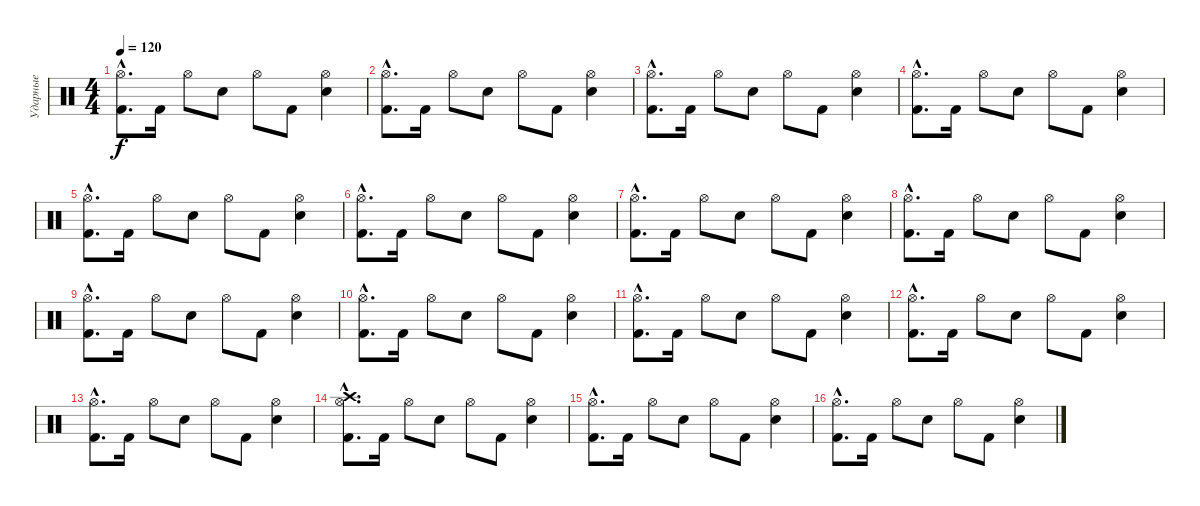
\track ("Ударные" "Ударные") {instrument percussion}
\staff {score}
\articulation defaults
\ts (4 4)
\tempo 120
\clef neutral
\ks c
("Hi-Hat (open)"{hac} "Kick (hit) 2"{hac}).8{d dy f} "Kick (hit) 2".16 "Hi-Hat (open)".8 "Snare (hit) 2".8 "Hi-Hat (open)".8 "Kick (hit) 2".8 ("Hi-Hat (open)" "Snare (hit) 2").4 |
("Hi-Hat (open)"{hac} "Kick (hit) 2"{hac}).8{d} "Kick (hit) 2".16 "Hi-Hat (open)".8 "Snare (hit) 2".8 "Hi-Hat (open)".8 "Kick (hit) 2".8 ("Hi-Hat (open)" "Snare (hit) 2").4 |
("Hi-Hat (open)"{hac} "Kick (hit) 2"{hac}).8{d} "Kick (hit) 2".16 "Hi-Hat (open)".8 "Snare (hit) 2".8 "Hi-Hat (open)".8 "Kick (hit) 2".8 ("Hi-Hat (open)" "Snare (hit) 2").4 |
("Hi-Hat (open)"{hac} "Kick (hit) 2"{hac}).8{d} "Kick (hit) 2".16 "Hi-Hat (open)".8 "Snare (hit) 2".8 "Hi-Hat (open)".8 "Kick (hit) 2".8 ("Hi-Hat (open)" "Snare (hit) 2").4 |
("Hi-Hat (open)"{hac} "Kick (hit) 2"{hac}).8{d} "Kick (hit) 2".16 "Hi-Hat (open)".8 "Snare (hit) 2".8 "Hi-Hat (open)".8 "Kick (hit) 2".8 ("Hi-Hat (open)" "Snare (hit) 2").4 |
("Hi-Hat (open)"{hac} "Kick (hit) 2"{hac}).8{d} "Kick (hit) 2".16 "Hi-Hat (open)".8 "Snare (hit) 2".8 "Hi-Hat (open)".8 "Kick (hit) 2".8 ("Hi-Hat (open)" "Snare (hit) 2").4 |
("Hi-Hat (open)"{hac} "Kick (hit) 2"{hac}).8{d} "Kick (hit) 2".16 "Hi-Hat (open)".8 "Snare (hit) 2".8 "Hi-Hat (open)".8 "Kick (hit) 2".8 ("Hi-Hat (open)" "Snare (hit) 2").4 |
("Hi-Hat (open)"{hac} "Kick (hit) 2"{hac}).8{d} "Kick (hit) 2".16 "Hi-Hat (open)".8 "Snare (hit) 2".8 "Hi-Hat (open)".8 "Kick (hit) 2".8 ("Hi-Hat (open)" "Snare (hit) 2").4 |
("Hi-Hat (open)"{hac} "Kick (hit) 2"{hac}).8{d} "Kick (hit) 2".16 "Hi-Hat (open)".8 "Snare (hit) 2".8 "Hi-Hat (open)".8 "Kick (hit) 2".8 ("Hi-Hat (open)" "Snare (hit) 2").4 |
("Hi-Hat (open)"{hac} "Kick (hit) 2"{hac}).8{d} "Kick (hit) 2".16 "Hi-Hat (open)".8 "Snare (hit) 2".8 "Hi-Hat (open)".8 "Kick (hit) 2".8 ("Hi-Hat (open)" "Snare (hit) 2").4 |
("Hi-Hat (open)"{hac} "Kick (hit) 2"{hac}).8{d} "Kick (hit) 2".16 "Hi-Hat (open)".8 "Snare (hit) 2".8 "Hi-Hat (open)".8 "Kick (hit) 2".8 ("Hi-Hat (open)" "Snare (hit) 2").4 |
("Hi-Hat (open)"{hac} "Kick (hit) 2"{hac}).8{d} "Kick (hit) 2".16 "Hi-Hat (open)".8 "Snare (hit) 2".8 "Hi-Hat (open)".8 "Kick (hit) 2".8 ("Hi-Hat (open)" "Snare (hit) 2").4 |
("Hi-Hat (open)"{hac} "Kick (hit) 2"{hac}).8{d} "Kick (hit) 2".16 "Hi-Hat (open)".8 "Snare (hit) 2".8 "Hi-Hat (open)".8 "Kick (hit) 2".8 ("Hi-Hat (open)" "Snare (hit) 2").4 |
("Hi-Hat (open)"{hac} "Crash high (hit)"{hac} "Kick (hit) 2"{hac}).8{d} "Kick (hit) 2".16 "Hi-Hat (open)".8 "Snare (hit) 2".8 "Hi-Hat (open)".8 "Kick (hit) 2".8 ("Hi-Hat (open)" "Snare (hit) 2").4 |
("Hi-Hat (open)"{hac} "Kick (hit) 2"{hac}).8{d} "Kick (hit) 2".16 "Hi-Hat (open)".8 "Snare (hit) 2".8 "Hi-Hat (open)".8 "Kick (hit) 2".8 ("Hi-Hat (open)" "Snare (hit) 2").4 |
("Hi-Hat (open)"{hac} "Kick (hit) 2"{hac}).8{d} "Kick (hit) 2".16 "Hi-Hat (open)".8 "Snare (hit) 2".8 "Hi-Hat (open)".8 "Kick (hit) 2".8 ("Hi-Hat (open)" "Snare (hit) 2").4
